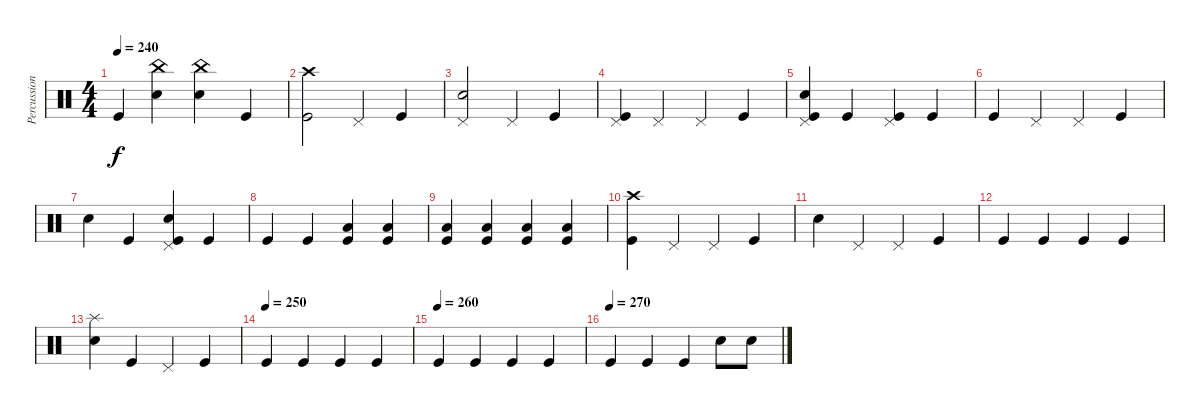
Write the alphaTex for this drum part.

\track ("Percussion" "Percussion") {instrument percussion}
\staff {score}
\articulation defaults
\ts (4 4)
\tempo 240
\clef neutral
\ks c "Kick (hit)".4{dy f}
("Snare (hit) 2" "China (hit)").4 ("China (hit)" "Snare (hit) 2").4 "Kick (hit)".4 |
("Crash high (hit)" "Kick (hit)").2 "Pedal Hi-Hat (hit)".4 "Kick (hit)".4 |
("Snare (hit) 2" "Pedal Hi-Hat (hit)").2 "Pedal Hi-Hat (hit)".4 "Kick (hit)".4 |
("Kick (hit)" "Pedal Hi-Hat (hit)").4 "Pedal Hi-Hat (hit)".4 "Pedal Hi-Hat (hit)".4 "Kick (hit)".4 |
("Kick (hit)" "Snare (hit) 2" "Pedal Hi-Hat (hit)").4 "Kick (hit)".4 ("Kick (hit)" "Pedal Hi-Hat (hit)").4 "Kick (hit)".4 |
"Kick (hit)".4 "Pedal Hi-Hat (hit)".4 "Pedal Hi-Hat (hit)".4 "Kick (hit)".4 |
"Snare (hit) 2".4 "Kick (hit)".4 ("Pedal Hi-Hat (hit)" "Kick (hit)" "Snare (hit) 2").4 "Kick (hit)".4 |
"Kick (hit)".4 "Kick (hit)".4 ("Low Floor Tom (hit)" "Kick (hit)").4 ("Low Floor Tom (hit)" "Kick (hit)").4 |
("Kick (hit)" "Low Tom (hit)").4 ("Kick (hit)" "Low Tom (hit)").4 ("Kick (hit)" "Low Tom (hit)").4 ("Kick (hit)" "Low Floor Tom (hit)").4 |
("Kick (hit)" "Crash high (hit)").4 "Pedal Hi-Hat (hit)".4 "Pedal Hi-Hat (hit)".4 "Kick (hit)".4 |
"Snare (hit) 2".4 "Pedal Hi-Hat (hit)".4 "Pedal Hi-Hat (hit)".4 "Kick (hit)".4 |
"Kick (hit)".4 "Kick (hit)".4 "Kick (hit)".4 "Kick (hit)".4 |
("Snare (hit) 2" "Splash (hit)").4 "Kick (hit)".4 "Pedal Hi-Hat (hit)".4 "Kick (hit)".4 |
\tempo (250)
"Kick (hit)".4 "Kick (hit)".4 "Kick (hit)".4 "Kick (hit)".4 |
\tempo (260)
"Kick (hit)".4 "Kick (hit)".4 "Kick (hit)".4 "Kick (hit)".4 |
\tempo (270)
"Kick (hit)".4 "Kick (hit)".4 "Kick (hit)".4 "Snare (hit) 2".8 "Snare (hit) 2".8
